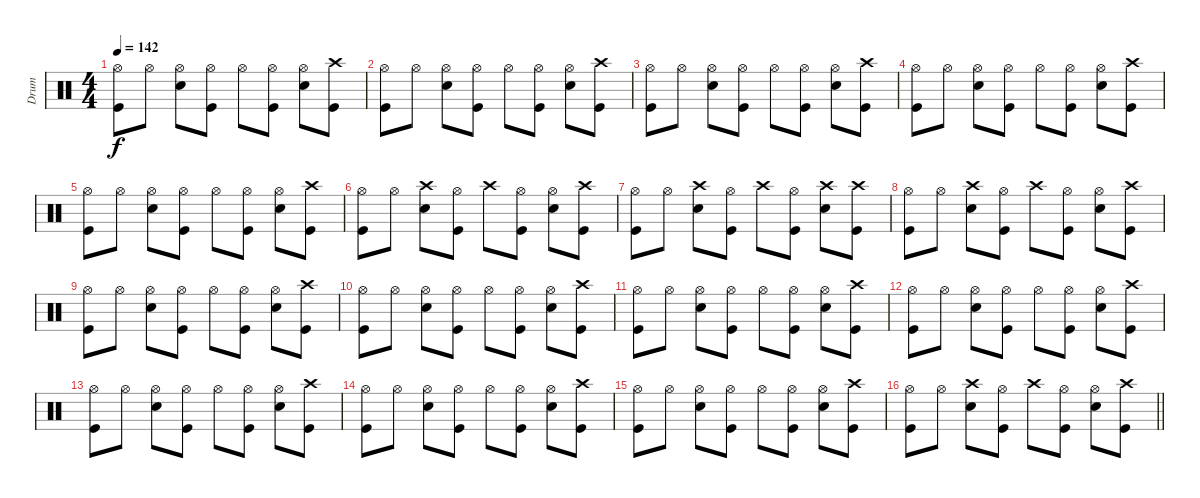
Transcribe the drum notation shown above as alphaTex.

\track ("Drum" "Drum") {instrument percussion}
\staff {score}
\articulation defaults
\ts (4 4)
\tempo 142
\clef neutral
\ks c
("Kick (hit)" "Hi-Hat (open)").8{dy f} "Hi-Hat (open)".8 ("Snare (hit) 2" "Hi-Hat (open)").8 ("Kick (hit)" "Hi-Hat (open)").8 "Hi-Hat (open)".8 ("Kick (hit)" "Hi-Hat (open)").8 ("Snare (hit) 2" "Hi-Hat (open)").8 ("Kick (hit)" "Crash high (hit)").8 |
("Kick (hit)" "Hi-Hat (open)").8 "Hi-Hat (open)".8 ("Snare (hit) 2" "Hi-Hat (open)").8 ("Kick (hit)" "Hi-Hat (open)").8 "Hi-Hat (open)".8 ("Kick (hit)" "Hi-Hat (open)").8 ("Snare (hit) 2" "Hi-Hat (open)").8 ("Kick (hit)" "Crash high (hit)").8 |
("Kick (hit)" "Hi-Hat (open)").8 "Hi-Hat (open)".8 ("Snare (hit) 2" "Hi-Hat (open)").8 ("Kick (hit)" "Hi-Hat (open)").8 "Hi-Hat (open)".8 ("Kick (hit)" "Hi-Hat (open)").8 ("Snare (hit) 2" "Hi-Hat (open)").8 ("Kick (hit)" "Crash high (hit)").8 |
("Kick (hit)" "Hi-Hat (open)").8 "Hi-Hat (open)".8 ("Snare (hit) 2" "Hi-Hat (open)").8 ("Kick (hit)" "Hi-Hat (open)").8 "Hi-Hat (open)".8 ("Kick (hit)" "Hi-Hat (open)").8 ("Snare (hit) 2" "Hi-Hat (open)").8 ("Kick (hit)" "Crash high (hit)").8 |
("Kick (hit)" "Hi-Hat (open)").8 "Hi-Hat (open)".8 ("Snare (hit) 2" "Hi-Hat (open)").8 ("Kick (hit)" "Hi-Hat (open)").8 "Hi-Hat (open)".8 ("Kick (hit)" "Hi-Hat (open)").8 ("Snare (hit) 2" "Hi-Hat (open)").8 ("Kick (hit)" "Crash high (hit)").8 |
("Kick (hit)" "Hi-Hat (open)").8 "Hi-Hat (open)".8 ("Snare (hit) 2" "Crash high (hit)").8 ("Kick (hit)" "Hi-Hat (open)").8 "Crash high (hit)".8 ("Kick (hit)" "Hi-Hat (open)").8 ("Snare (hit) 2" "Hi-Hat (open)").8 ("Kick (hit)" "Crash high (hit)").8 |
("Kick (hit)" "Hi-Hat (open)").8 "Hi-Hat (open)".8 ("Snare (hit) 2" "Crash high (hit)").8 ("Kick (hit)" "Hi-Hat (open)").8 "Crash high (hit)".8 ("Kick (hit)" "Hi-Hat (open)").8 ("Snare (hit) 2" "Crash high (hit)").8 ("Kick (hit)" "Crash high (hit)").8 |
("Kick (hit)" "Hi-Hat (open)").8 "Hi-Hat (open)".8 ("Snare (hit) 2" "Crash high (hit)").8 ("Kick (hit)" "Hi-Hat (open)").8 "Crash high (hit)".8 ("Kick (hit)" "Hi-Hat (open)").8 ("Snare (hit) 2" "Hi-Hat (open)").8 ("Kick (hit)" "Crash high (hit)").8 |
("Kick (hit)" "Hi-Hat (open)").8 "Hi-Hat (open)".8 ("Snare (hit) 2" "Hi-Hat (open)").8 ("Kick (hit)" "Hi-Hat (open)").8 "Hi-Hat (open)".8 ("Kick (hit)" "Hi-Hat (open)").8 ("Snare (hit) 2" "Hi-Hat (open)").8 ("Kick (hit)" "Crash high (hit)").8 |
("Kick (hit)" "Hi-Hat (open)").8 "Hi-Hat (open)".8 ("Snare (hit) 2" "Hi-Hat (open)").8 ("Kick (hit)" "Hi-Hat (open)").8 "Hi-Hat (open)".8 ("Kick (hit)" "Hi-Hat (open)").8 ("Snare (hit) 2" "Hi-Hat (open)").8 ("Kick (hit)" "Crash high (hit)").8 |
("Kick (hit)" "Hi-Hat (open)").8 "Hi-Hat (open)".8 ("Snare (hit) 2" "Hi-Hat (open)").8 ("Kick (hit)" "Hi-Hat (open)").8 "Hi-Hat (open)".8 ("Kick (hit)" "Hi-Hat (open)").8 ("Snare (hit) 2" "Hi-Hat (open)").8 ("Kick (hit)" "Crash high (hit)").8 |
("Kick (hit)" "Hi-Hat (open)").8 "Hi-Hat (open)".8 ("Snare (hit) 2" "Hi-Hat (open)").8 ("Kick (hit)" "Hi-Hat (open)").8 "Hi-Hat (open)".8 ("Kick (hit)" "Hi-Hat (open)").8 ("Snare (hit) 2" "Hi-Hat (open)").8 ("Kick (hit)" "Crash high (hit)").8 |
("Kick (hit)" "Hi-Hat (open)").8 "Hi-Hat (open)".8 ("Snare (hit) 2" "Hi-Hat (open)").8 ("Kick (hit)" "Hi-Hat (open)").8 "Hi-Hat (open)".8 ("Kick (hit)" "Hi-Hat (open)").8 ("Snare (hit) 2" "Hi-Hat (open)").8 ("Kick (hit)" "Crash high (hit)").8 |
("Kick (hit)" "Hi-Hat (open)").8 "Hi-Hat (open)".8 ("Snare (hit) 2" "Hi-Hat (open)").8 ("Kick (hit)" "Hi-Hat (open)").8 "Hi-Hat (open)".8 ("Kick (hit)" "Hi-Hat (open)").8 ("Snare (hit) 2" "Hi-Hat (open)").8 ("Kick (hit)" "Crash high (hit)").8 |
("Kick (hit)" "Hi-Hat (open)").8 "Hi-Hat (open)".8 ("Snare (hit) 2" "Hi-Hat (open)").8 ("Kick (hit)" "Hi-Hat (open)").8 "Hi-Hat (open)".8 ("Kick (hit)" "Hi-Hat (open)").8 ("Snare (hit) 2" "Hi-Hat (open)").8 ("Kick (hit)" "Crash high (hit)").8 |
\barLineRight lightlight
("Kick (hit)" "Hi-Hat (open)").8 "Hi-Hat (open)".8 ("Snare (hit) 2" "Crash high (hit)").8 ("Kick (hit)" "Hi-Hat (open)").8 "Crash high (hit)".8 ("Kick (hit)" "Hi-Hat (open)").8 ("Snare (hit) 2" "Hi-Hat (open)").8 ("Kick (hit)" "Crash high (hit)").8
